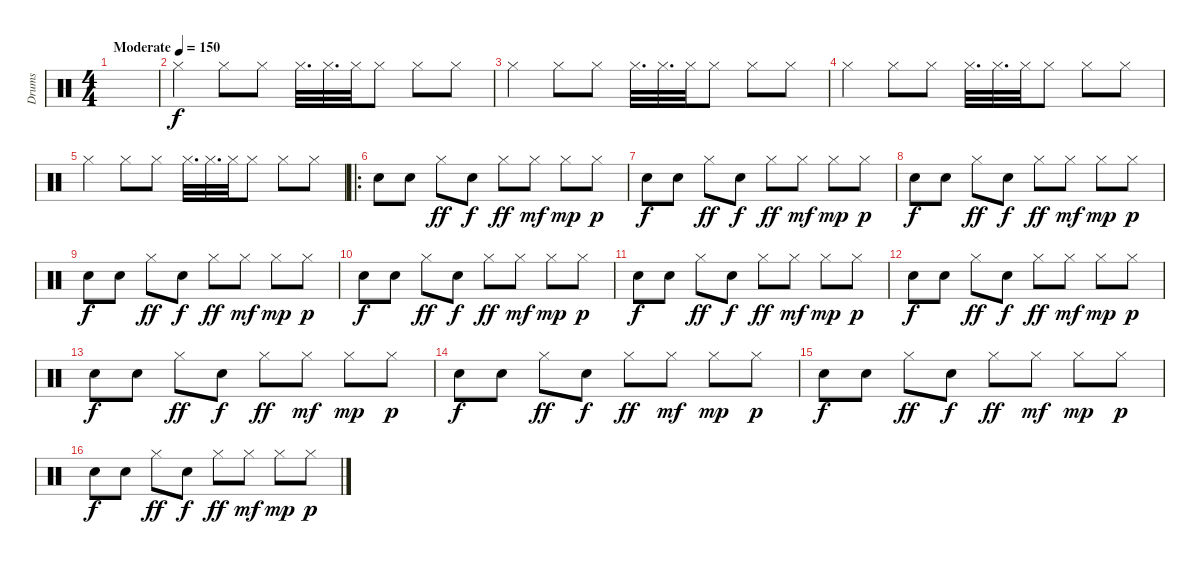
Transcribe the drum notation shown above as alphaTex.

\track ("Drums" "Drums") {instrument percussion}
\staff {score}
\articulation defaults
\ts (4 4)
\tempo (150 "Moderate")
\clef neutral
\ks c
|
"Hi-Hat (closed)".4 "Hi-Hat (closed)".8 "Hi-Hat (closed)".8 "Hi-Hat (closed)".32{d} "Hi-Hat (closed)".32{d} "Hi-Hat (closed)".32 "Hi-Hat (closed)".8 "Hi-Hat (closed)".8 "Hi-Hat (closed)".8 |
"Hi-Hat (closed)".4 "Hi-Hat (closed)".8 "Hi-Hat (closed)".8 "Hi-Hat (closed)".32{d} "Hi-Hat (closed)".32{d} "Hi-Hat (closed)".32 "Hi-Hat (closed)".8 "Hi-Hat (closed)".8 "Hi-Hat (closed)".8 |
"Hi-Hat (closed)".4 "Hi-Hat (closed)".8 "Hi-Hat (closed)".8 "Hi-Hat (closed)".32{d} "Hi-Hat (closed)".32{d} "Hi-Hat (closed)".32 "Hi-Hat (closed)".8 "Hi-Hat (closed)".8 "Hi-Hat (closed)".8 |
"Hi-Hat (closed)".4 "Hi-Hat (closed)".8 "Hi-Hat (closed)".8 "Hi-Hat (closed)".32{d} "Hi-Hat (closed)".32{d} "Hi-Hat (closed)".32 "Hi-Hat (closed)".8 "Hi-Hat (closed)".8 "Hi-Hat (closed)".8 |
\ro "Snare (hit) 2".8 "Snare (hit) 2".8 "Hi-Hat (closed)".8{dy ff} "Snare (hit) 2".8{dy f} "Hi-Hat (closed)".8{dy ff} "Hi-Hat (closed)".8{dy mf} "Hi-Hat (closed)".8{dy mp} "Hi-Hat (closed)".8{dy p}
|
"Snare (hit) 2".8{dy f} "Snare (hit) 2".8 "Hi-Hat (closed)".8{dy ff} "Snare (hit) 2".8{dy f} "Hi-Hat (closed)".8{dy ff} "Hi-Hat (closed)".8{dy mf} "Hi-Hat (closed)".8{dy mp} "Hi-Hat (closed)".8{dy p} |
"Snare (hit) 2".8{dy f} "Snare (hit) 2".8 "Hi-Hat (closed)".8{dy ff} "Snare (hit) 2".8{dy f} "Hi-Hat (closed)".8{dy ff} "Hi-Hat (closed)".8{dy mf} "Hi-Hat (closed)".8{dy mp} "Hi-Hat (closed)".8{dy p} |
"Snare (hit) 2".8{dy f} "Snare (hit) 2".8 "Hi-Hat (closed)".8{dy ff} "Snare (hit) 2".8{dy f} "Hi-Hat (closed)".8{dy ff} "Hi-Hat (closed)".8{dy mf} "Hi-Hat (closed)".8{dy mp} "Hi-Hat (closed)".8{dy p} |
"Snare (hit) 2".8{dy f} "Snare (hit) 2".8 "Hi-Hat (closed)".8{dy ff} "Snare (hit) 2".8{dy f} "Hi-Hat (closed)".8{dy ff} "Hi-Hat (closed)".8{dy mf} "Hi-Hat (closed)".8{dy mp} "Hi-Hat (closed)".8{dy p} |
"Snare (hit) 2".8{dy f} "Snare (hit) 2".8 "Hi-Hat (closed)".8{dy ff} "Snare (hit) 2".8{dy f} "Hi-Hat (closed)".8{dy ff} "Hi-Hat (closed)".8{dy mf} "Hi-Hat (closed)".8{dy mp} "Hi-Hat (closed)".8{dy p} |
"Snare (hit) 2".8{dy f} "Snare (hit) 2".8 "Hi-Hat (closed)".8{dy ff} "Snare (hit) 2".8{dy f} "Hi-Hat (closed)".8{dy ff} "Hi-Hat (closed)".8{dy mf} "Hi-Hat (closed)".8{dy mp} "Hi-Hat (closed)".8{dy p} |
"Snare (hit) 2".8{dy f} "Snare (hit) 2".8 "Hi-Hat (closed)".8{dy ff} "Snare (hit) 2".8{dy f} "Hi-Hat (closed)".8{dy ff} "Hi-Hat (closed)".8{dy mf} "Hi-Hat (closed)".8{dy mp} "Hi-Hat (closed)".8{dy p} |
"Snare (hit) 2".8{dy f} "Snare (hit) 2".8 "Hi-Hat (closed)".8{dy ff} "Snare (hit) 2".8{dy f} "Hi-Hat (closed)".8{dy ff} "Hi-Hat (closed)".8{dy mf} "Hi-Hat (closed)".8{dy mp} "Hi-Hat (closed)".8{dy p} |
"Snare (hit) 2".8{dy f} "Snare (hit) 2".8 "Hi-Hat (closed)".8{dy ff} "Snare (hit) 2".8{dy f} "Hi-Hat (closed)".8{dy ff} "Hi-Hat (closed)".8{dy mf} "Hi-Hat (closed)".8{dy mp} "Hi-Hat (closed)".8{dy p} |
"Snare (hit) 2".8{dy f} "Snare (hit) 2".8 "Hi-Hat (closed)".8{dy ff} "Snare (hit) 2".8{dy f} "Hi-Hat (closed)".8{dy ff} "Hi-Hat (closed)".8{dy mf} "Hi-Hat (closed)".8{dy mp} "Hi-Hat (closed)".8{dy p}
